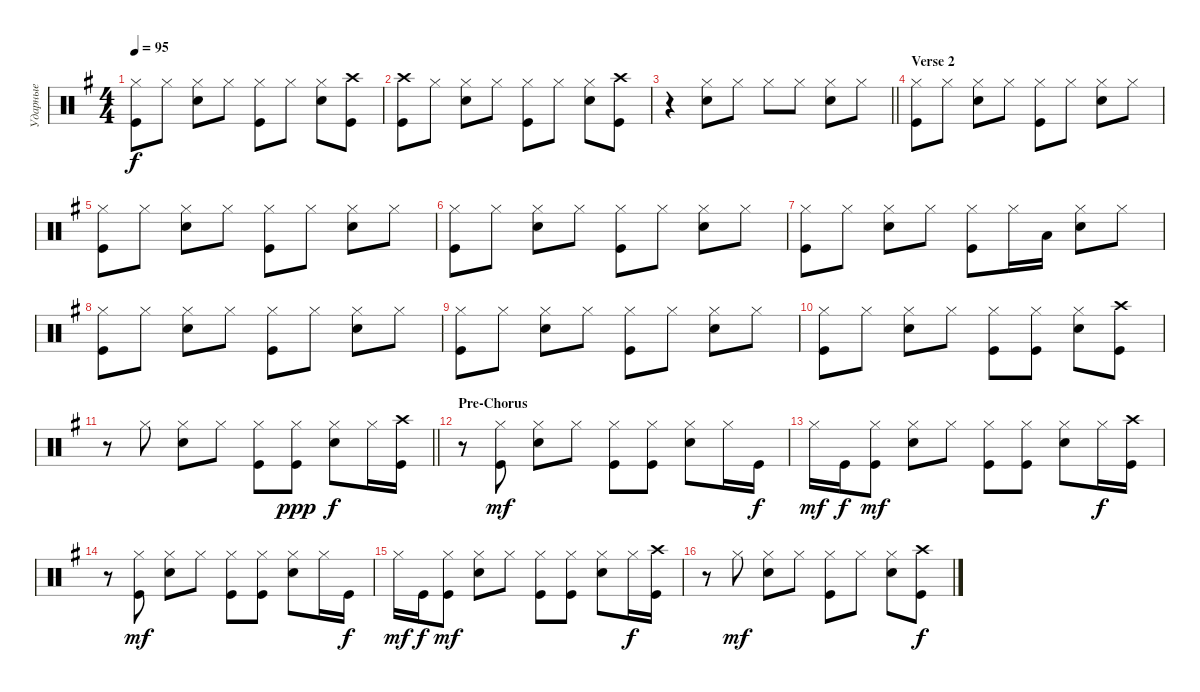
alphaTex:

\track ("Ударные" "Ударные") {instrument percussion}
\staff {score}
\articulation defaults
\ts (4 4)
\tempo 95
\clef neutral
\ks eminor
("Kick (hit)" "Hi-Hat (closed)").8{dy f} "Hi-Hat (closed)".8 ("Snare (hit) 2" "Hi-Hat (closed)").8 "Hi-Hat (closed)".8 ("Kick (hit)" "Hi-Hat (closed)").8 "Hi-Hat (closed)".8 ("Snare (hit) 2" "Hi-Hat (closed)").8 ("Crash high (hit)" "Kick (hit)").8 |
("Kick (hit)" "Crash high (hit)").8 "Hi-Hat (closed)".8 ("Snare (hit) 2" "Hi-Hat (closed)").8 "Hi-Hat (closed)".8 ("Kick (hit)" "Hi-Hat (closed)").8 "Hi-Hat (closed)".8 ("Snare (hit) 2" "Hi-Hat (closed)").8 ("Kick (hit)" "Crash high (hit)").8 |
\barLineRight lightlight
r.4 ("Snare (hit) 2" "Hi-Hat (closed)").8 "Hi-Hat (closed)".8 "Hi-Hat (closed)".8 "Hi-Hat (closed)".8 ("Snare (hit) 2" "Hi-Hat (closed)").8 "Hi-Hat (closed)".8 |
\section ("" "Verse 2")
("Kick (hit)" "Hi-Hat (closed)").8 "Hi-Hat (closed)".8 ("Snare (hit) 2" "Hi-Hat (closed)").8 "Hi-Hat (closed)".8 ("Kick (hit)" "Hi-Hat (closed)").8 "Hi-Hat (closed)".8 ("Snare (hit) 2" "Hi-Hat (closed)").8 "Hi-Hat (closed)".8 |
("Kick (hit)" "Hi-Hat (closed)").8 "Hi-Hat (closed)".8 ("Snare (hit) 2" "Hi-Hat (closed)").8 "Hi-Hat (closed)".8 ("Kick (hit)" "Hi-Hat (closed)").8 "Hi-Hat (closed)".8 ("Snare (hit) 2" "Hi-Hat (closed)").8 "Hi-Hat (closed)".8 |
("Kick (hit)" "Hi-Hat (closed)").8 "Hi-Hat (closed)".8 ("Snare (hit) 2" "Hi-Hat (closed)").8 "Hi-Hat (closed)".8 ("Kick (hit)" "Hi-Hat (closed)").8 "Hi-Hat (closed)".8 ("Snare (hit) 2" "Hi-Hat (closed)").8 "Hi-Hat (closed)".8 |
("Kick (hit)" "Hi-Hat (closed)").8 "Hi-Hat (closed)".8 ("Snare (hit) 2" "Hi-Hat (closed)").8 "Hi-Hat (closed)".8 ("Kick (hit)" "Hi-Hat (closed)").8 "Hi-Hat (closed)".16 "Low Tom (hit)".16 ("Snare (hit) 2" "Hi-Hat (closed)").8 "Hi-Hat (closed)".8 |
("Kick (hit)" "Hi-Hat (closed)").8 "Hi-Hat (closed)".8 ("Snare (hit) 2" "Hi-Hat (closed)").8 "Hi-Hat (closed)".8 ("Kick (hit)" "Hi-Hat (closed)").8 "Hi-Hat (closed)".8 ("Snare (hit) 2" "Hi-Hat (closed)").8 "Hi-Hat (closed)".8 |
("Kick (hit)" "Hi-Hat (closed)").8 "Hi-Hat (closed)".8 ("Snare (hit) 2" "Hi-Hat (closed)").8 "Hi-Hat (closed)".8 ("Kick (hit)" "Hi-Hat (closed)").8 "Hi-Hat (closed)".8 ("Snare (hit) 2" "Hi-Hat (closed)").8 "Hi-Hat (closed)".8 |
("Kick (hit)" "Hi-Hat (closed)").8 "Hi-Hat (closed)".8 ("Snare (hit) 2" "Hi-Hat (closed)").8 "Hi-Hat (closed)".8 ("Kick (hit)" "Hi-Hat (closed)").8 ("Hi-Hat (closed)" "Kick (hit)").8 ("Snare (hit) 2" "Hi-Hat (closed)").8 ("Kick (hit)" "Crash high (hit)").8 |
\barLineRight lightlight
r.8 "Hi-Hat (closed)".8 ("Snare (hit) 2" "Hi-Hat (closed)").8 "Hi-Hat (closed)".8 ("Kick (hit)" "Hi-Hat (closed)").8 ("Hi-Hat (closed)" "Kick (hit)").8{dy ppp} ("Snare (hit) 2" "Hi-Hat (closed)").8{dy f} "Hi-Hat (closed)".16 ("Kick (hit)" "Crash high (hit)").16 |
\section ("" "Pre-Chorus")
r.8 ("Hi-Hat (closed)" "Kick (hit)").8{dy mf} ("Snare (hit) 2" "Hi-Hat (closed)").8 "Hi-Hat (closed)".8 ("Kick (hit)" "Hi-Hat (closed)").8 ("Hi-Hat (closed)" "Kick (hit)").8 ("Snare (hit) 2" "Hi-Hat (closed)").8 "Hi-Hat (closed)".16 "Kick (hit)".16{dy f} |
"Hi-Hat (closed)".16{dy mf} "Kick (hit)".16{dy f} ("Hi-Hat (closed)" "Kick (hit)").8{dy mf} ("Snare (hit) 2" "Hi-Hat (closed)").8 "Hi-Hat (closed)".8 ("Kick (hit)" "Hi-Hat (closed)").8 ("Hi-Hat (closed)" "Kick (hit)").8 ("Snare (hit) 2" "Hi-Hat (closed)").8 "Hi-Hat (closed)".16{dy f} ("Kick (hit)" "Crash high (hit)").16 |
r.8 ("Hi-Hat (closed)" "Kick (hit)").8{dy mf} ("Snare (hit) 2" "Hi-Hat (closed)").8 "Hi-Hat (closed)".8 ("Kick (hit)" "Hi-Hat (closed)").8 ("Hi-Hat (closed)" "Kick (hit)").8 ("Snare (hit) 2" "Hi-Hat (closed)").8 "Hi-Hat (closed)".16 "Kick (hit)".16{dy f} |
"Hi-Hat (closed)".16{dy mf} "Kick (hit)".16{dy f} ("Hi-Hat (closed)" "Kick (hit)").8{dy mf} ("Snare (hit) 2" "Hi-Hat (closed)").8 "Hi-Hat (closed)".8 ("Kick (hit)" "Hi-Hat (closed)").8 ("Hi-Hat (closed)" "Kick (hit)").8 ("Snare (hit) 2" "Hi-Hat (closed)").8 "Hi-Hat (closed)".16{dy f} ("Kick (hit)" "Crash high (hit)").16 |
r.8 "Hi-Hat (closed)".8{dy mf} ("Snare (hit) 2" "Hi-Hat (closed)").8 "Hi-Hat (closed)".8 ("Kick (hit)" "Hi-Hat (closed)").8 "Hi-Hat (closed)".8 ("Snare (hit) 2" "Hi-Hat (closed)").8 ("Kick (hit)" "Crash high (hit)").8{dy f}
